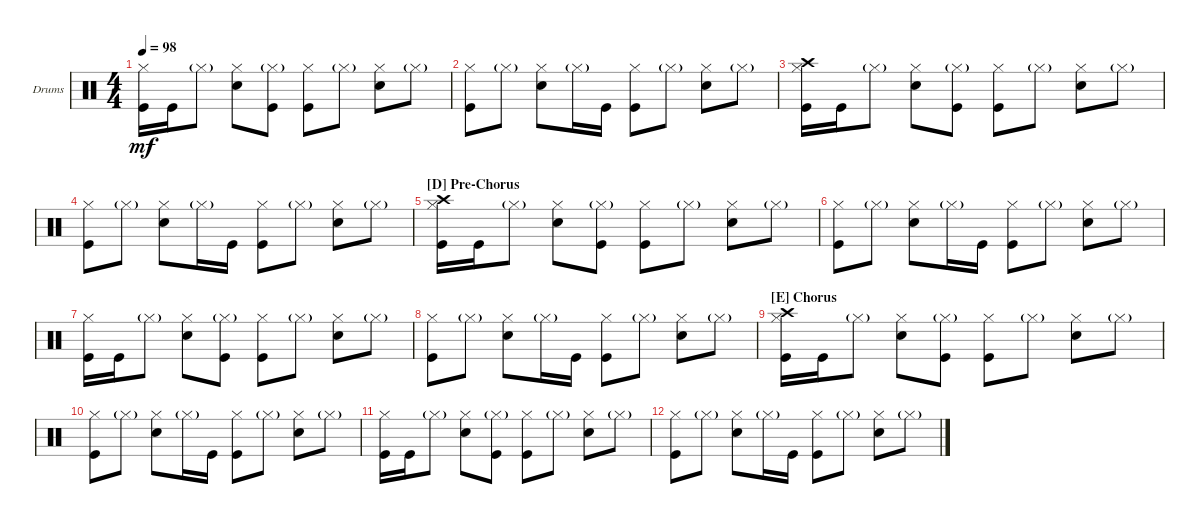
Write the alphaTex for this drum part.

\defaultSystemsLayout 4
\bracketExtendMode groupsimilarinstruments
\firstSystemTrackNameOrientation horizontal
\otherSystemsTrackNameOrientation horizontal
\track ("Drumkit" "Drums") {instrument percussion}
\staff {score}
\articulation defaults
\ts (4 4)
\tempo 98
\clef neutral
\ks c
("Kick (hit)" "Hi-Hat (closed)").16{dy mf} "Kick (hit)".16 "Hi-Hat (closed)"{g}.8 ("Snare (hit) 2" "Hi-Hat (closed)").8 ("Kick (hit)" "Hi-Hat (closed)"{g}).8 ("Kick (hit)" "Hi-Hat (closed)").8 "Hi-Hat (closed)"{g}.8 ("Snare (hit) 2" "Hi-Hat (closed)").8 "Hi-Hat (closed)"{g}.8 |
("Kick (hit)" "Hi-Hat (closed)").8 "Hi-Hat (closed)"{g}.8 ("Snare (hit) 2" "Hi-Hat (closed)").8 "Hi-Hat (closed)"{g}.16 "Kick (hit)".16 ("Kick (hit)" "Hi-Hat (closed)").8 "Hi-Hat (closed)"{g}.8 ("Snare (hit) 2" "Hi-Hat (closed)").8 "Hi-Hat (closed)"{g}.8 |
("Kick (hit)" "Hi-Hat (closed)" "Crash high (hit)").16 "Kick (hit)".16 "Hi-Hat (closed)"{g}.8 ("Snare (hit) 2" "Hi-Hat (closed)").8 ("Kick (hit)" "Hi-Hat (closed)"{g}).8 ("Kick (hit)" "Hi-Hat (closed)").8 "Hi-Hat (closed)"{g}.8 ("Snare (hit) 2" "Hi-Hat (closed)").8 "Hi-Hat (closed)"{g}.8 |
("Kick (hit)" "Hi-Hat (closed)").8 "Hi-Hat (closed)"{g}.8 ("Snare (hit) 2" "Hi-Hat (closed)").8 "Hi-Hat (closed)"{g}.16 "Kick (hit)".16 ("Kick (hit)" "Hi-Hat (closed)").8 "Hi-Hat (closed)"{g}.8 ("Snare (hit) 2" "Hi-Hat (closed)").8 "Hi-Hat (closed)"{g}.8 |
\section ("D" "Pre-Chorus")
("Kick (hit)" "Hi-Hat (closed)" "Crash high (hit)").16 "Kick (hit)".16 "Hi-Hat (closed)"{g}.8 ("Snare (hit) 2" "Hi-Hat (closed)").8 ("Kick (hit)" "Hi-Hat (closed)"{g}).8 ("Kick (hit)" "Hi-Hat (closed)").8 "Hi-Hat (closed)"{g}.8 ("Snare (hit) 2" "Hi-Hat (closed)").8 "Hi-Hat (closed)"{g}.8 |
("Kick (hit)" "Hi-Hat (closed)").8 "Hi-Hat (closed)"{g}.8 ("Snare (hit) 2" "Hi-Hat (closed)").8 "Hi-Hat (closed)"{g}.16 "Kick (hit)".16 ("Kick (hit)" "Hi-Hat (closed)").8 "Hi-Hat (closed)"{g}.8 ("Snare (hit) 2" "Hi-Hat (closed)").8 "Hi-Hat (closed)"{g}.8 |
("Kick (hit)" "Hi-Hat (closed)").16 "Kick (hit)".16 "Hi-Hat (closed)"{g}.8 ("Snare (hit) 2" "Hi-Hat (closed)").8 ("Kick (hit)" "Hi-Hat (closed)"{g}).8 ("Kick (hit)" "Hi-Hat (closed)").8 "Hi-Hat (closed)"{g}.8 ("Snare (hit) 2" "Hi-Hat (closed)").8 "Hi-Hat (closed)"{g}.8 |
("Kick (hit)" "Hi-Hat (closed)").8 "Hi-Hat (closed)"{g}.8 ("Snare (hit) 2" "Hi-Hat (closed)").8 "Hi-Hat (closed)"{g}.16 "Kick (hit)".16 ("Kick (hit)" "Hi-Hat (closed)").8 "Hi-Hat (closed)"{g}.8 ("Snare (hit) 2" "Hi-Hat (closed)").8 "Hi-Hat (closed)"{g}.8 |
\section ("E" "Chorus")
("Kick (hit)" "Hi-Hat (closed)" "Crash high (hit)").16 "Kick (hit)".16 "Hi-Hat (closed)"{g}.8 ("Snare (hit) 2" "Hi-Hat (closed)").8 ("Kick (hit)" "Hi-Hat (closed)"{g}).8 ("Kick (hit)" "Hi-Hat (closed)").8 "Hi-Hat (closed)"{g}.8 ("Snare (hit) 2" "Hi-Hat (closed)").8 "Hi-Hat (closed)"{g}.8 |
("Kick (hit)" "Hi-Hat (closed)").8 "Hi-Hat (closed)"{g}.8 ("Snare (hit) 2" "Hi-Hat (closed)").8 "Hi-Hat (closed)"{g}.16 "Kick (hit)".16 ("Kick (hit)" "Hi-Hat (closed)").8 "Hi-Hat (closed)"{g}.8 ("Snare (hit) 2" "Hi-Hat (closed)").8 "Hi-Hat (closed)"{g}.8 |
("Kick (hit)" "Hi-Hat (closed)").16 "Kick (hit)".16 "Hi-Hat (closed)"{g}.8 ("Snare (hit) 2" "Hi-Hat (closed)").8 ("Kick (hit)" "Hi-Hat (closed)"{g}).8 ("Kick (hit)" "Hi-Hat (closed)").8 "Hi-Hat (closed)"{g}.8 ("Snare (hit) 2" "Hi-Hat (closed)").8 "Hi-Hat (closed)"{g}.8 |
("Kick (hit)" "Hi-Hat (closed)").8 "Hi-Hat (closed)"{g}.8 ("Snare (hit) 2" "Hi-Hat (closed)").8 "Hi-Hat (closed)"{g}.16 "Kick (hit)".16 ("Kick (hit)" "Hi-Hat (closed)").8 "Hi-Hat (closed)"{g}.8 ("Snare (hit) 2" "Hi-Hat (closed)").8 "Hi-Hat (closed)"{g}.8
